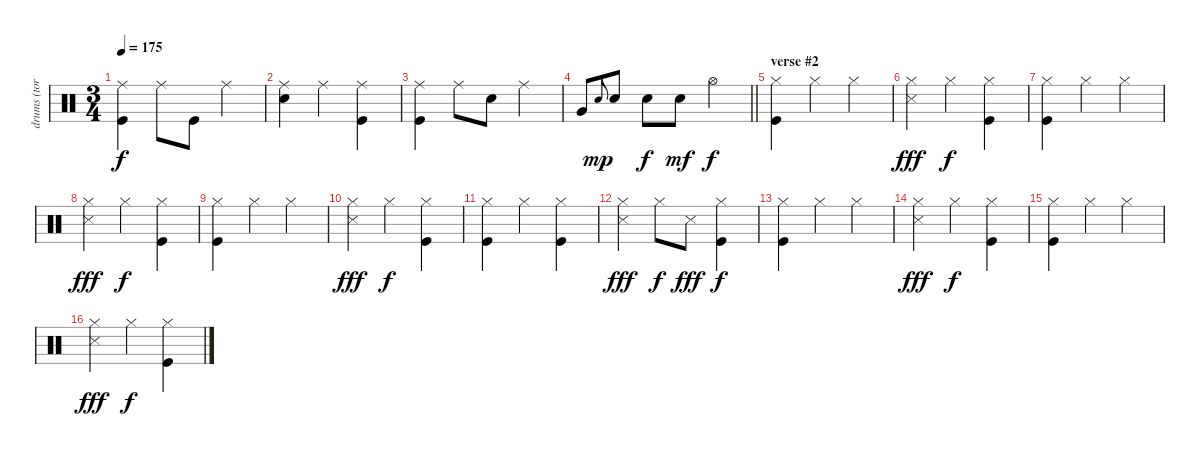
\track ("drums (tora)" "drums (tor") {instrument percussion}
\staff {score}
\articulation defaults
\ts (3 4)
\tempo 175
\clef neutral
\ks c
("Ride (middle)" "Kick (hit)").4{dy f} "Ride (middle)".8 "Kick (hit)".8 "Ride (middle)".4 |
("Ride (middle)" "Snare (hit) 2").4 "Ride (middle)".4 ("Ride (middle)" "Kick (hit)").4 |
("Ride (middle)" "Kick (hit)").4 "Ride (middle)".8 "Snare (hit) 2".8 "Ride (middle)".4 |
\barLineRight lightlight "Very Low Tom (hit)".8 "Snare (hit) 2".8{gr onbeat dy mp} "Snare (hit) 2".8 "Snare (hit) 2".8{dy f} "Snare (hit) 2".8{dy mf} "Hi-Hat (open)".4{dy f}
|
\section ("" "verse #2")
("Hi-Hat (closed)" "Kick (hit)").4 "Hi-Hat (closed)".4 "Hi-Hat (closed)".4 |
("Hi-Hat (closed)" "Snare (side stick) 3").4{dy fff} "Hi-Hat (closed)".4{dy f} ("Hi-Hat (closed)" "Kick (hit)").4 |
("Hi-Hat (closed)" "Kick (hit)").4 "Hi-Hat (closed)".4 "Hi-Hat (closed)".4 |
("Hi-Hat (closed)" "Snare (side stick) 3").4{dy fff} "Hi-Hat (closed)".4{dy f} ("Hi-Hat (closed)" "Kick (hit)").4 |
("Hi-Hat (closed)" "Kick (hit)").4 "Hi-Hat (closed)".4 "Hi-Hat (closed)".4 |
("Hi-Hat (closed)" "Snare (side stick) 3").4{dy fff} "Hi-Hat (closed)".4{dy f} ("Hi-Hat (closed)" "Kick (hit)").4 |
("Hi-Hat (closed)" "Kick (hit)").4 "Hi-Hat (closed)".4 ("Hi-Hat (closed)" "Kick (hit)").4 |
("Hi-Hat (closed)" "Snare (side stick) 3").4{dy fff} "Hi-Hat (closed)".8{dy f} "Snare (side stick) 3".8{dy fff} ("Hi-Hat (closed)" "Kick (hit)").4{dy f} |
("Hi-Hat (closed)" "Kick (hit)").4 "Hi-Hat (closed)".4 "Hi-Hat (closed)".4 |
("Hi-Hat (closed)" "Snare (side stick) 3").4{dy fff} "Hi-Hat (closed)".4{dy f} ("Hi-Hat (closed)" "Kick (hit)").4 |
("Hi-Hat (closed)" "Kick (hit)").4 "Hi-Hat (closed)".4 "Hi-Hat (closed)".4 |
("Hi-Hat (closed)" "Snare (side stick) 3").4{dy fff} "Hi-Hat (closed)".4{dy f} ("Hi-Hat (closed)" "Kick (hit)").4
